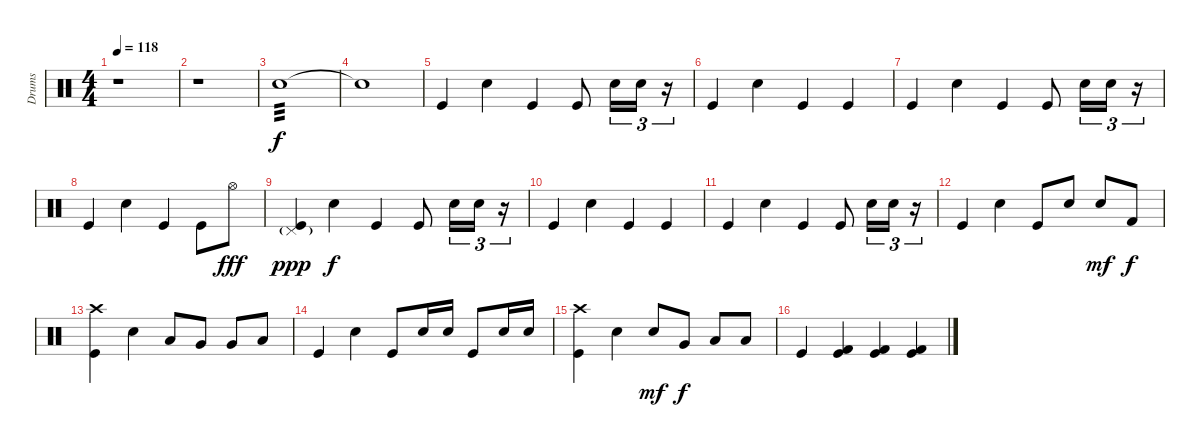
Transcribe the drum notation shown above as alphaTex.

\track ("Drums" "Drums") {instrument percussion}
\staff {score}
\articulation defaults
\ts (4 4)
\tempo 118
\clef neutral
\ks c
r.1{dy fff} |
r.1{volume 0} |
"Snare (hit) 2".1{tp 3 dy f volume 13} |
"Snare (hit)"{t}.1 |
"Kick (hit)".4 "Snare (hit) 2".4 "Kick (hit)".4 "Kick (hit)".8 "Snare (hit) 2".16{tu (3 2)} "Snare (hit) 2".16{tu (3 2)} r.16{tu (3 2)} |
"Kick (hit)".4 "Snare (hit) 2".4 "Kick (hit)".4 "Kick (hit)".4 |
"Kick (hit)".4 "Snare (hit) 2".4 "Kick (hit)".4 "Kick (hit)".8 "Snare (hit) 2".16{tu (3 2)} "Snare (hit) 2".16{tu (3 2)} r.16{tu (3 2)} |
"Kick (hit)".4 "Snare (hit) 2".4 "Kick (hit)".4 "Kick (hit)".8 "Hi-Hat (open)".8{dy fff} |
("Pedal Hi-Hat (hit)"{g} "Kick (hit)").4{dy ppp} "Snare (hit) 2".4{dy f} "Kick (hit)".4 "Kick (hit)".8 "Snare (hit) 2".16{tu (3 2)} "Snare (hit) 2".16{tu (3 2)} r.16{tu (3 2)} |
"Kick (hit)".4 "Snare (hit) 2".4 "Kick (hit)".4 "Kick (hit)".4 |
"Kick (hit)".4 "Snare (hit) 2".4 "Kick (hit)".4 "Kick (hit)".8 "Snare (hit) 2".16{tu (3 2)} "Snare (hit) 2".16{tu (3 2)} r.16{tu (3 2)} |
"Kick (hit)".4 "Snare (hit) 2".4 "Kick (hit)".8 "Snare (hit) 2".8 "Electric Snare (hit)".8{dy mf} "Kick (hit) 2".8{dy f} |
("Crash high (hit)" "Kick (hit)").4 "Snare (hit) 2".4 "Low Tom (hit)".8 "Very Low Tom (hit)".8 "Very Low Tom (hit)".8 "Low Floor Tom (hit)".8 |
"Kick (hit)".4 "Snare (hit) 2".4 "Kick (hit)".8 "Snare (hit) 2".16 "Snare (hit) 2".16 "Kick (hit)".8 "Snare (hit) 2".16 "Snare (hit) 2".16 |
("Crash high (hit)" "Kick (hit)").4 "Snare (hit) 2".4 "Snare (hit) 2".8{dy mf} "Very Low Tom (hit)".8{dy f} "Low Tom (hit)".8 "Low Floor Tom (hit)".8 |
"Kick (hit)".4 ("Kick (hit) 2" "Kick (hit)").4 ("Kick (hit) 2" "Kick (hit)").4 ("Kick (hit) 2" "Kick (hit)").4
